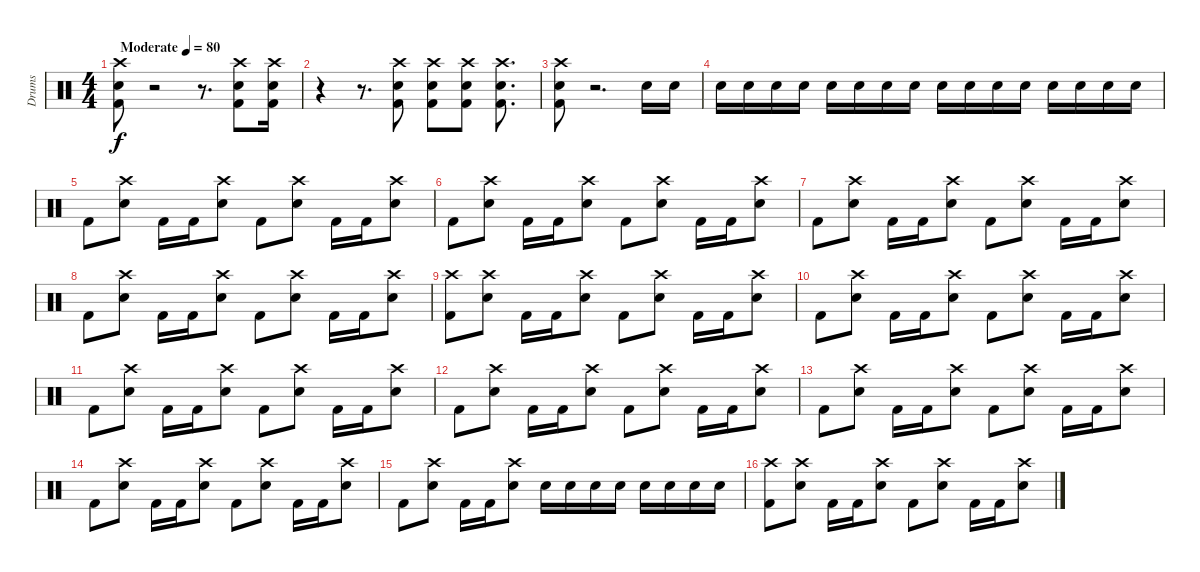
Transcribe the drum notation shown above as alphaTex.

\track ("Drums" "Drums") {instrument percussion}
\staff {score}
\articulation defaults
\ts (4 4)
\tempo (80 "Moderate")
\clef neutral
\ks c
("Kick (hit) 2" "Snare (hit) 2" "Crash high (hit)").8{dy f} r.2 r.8{d} ("Kick (hit) 2" "Snare (hit) 2" "Crash high (hit)").8 ("Kick (hit) 2" "Snare (hit) 2" "Crash high (hit)").16 |
r.4 r.8{d} ("Kick (hit) 2" "Snare (hit) 2" "Crash high (hit)").8 ("Kick (hit) 2" "Snare (hit) 2" "Crash high (hit)").8 ("Kick (hit) 2" "Snare (hit) 2" "Crash high (hit)").8 ("Kick (hit) 2" "Snare (hit) 2" "Crash high (hit)").8{d} |
("Kick (hit) 2" "Snare (hit) 2" "Crash high (hit)").8 r.2{d} "Snare (hit) 2".16 "Snare (hit) 2".16 |
"Snare (hit) 2".16 "Snare (hit) 2".16 "Snare (hit) 2".16 "Snare (hit) 2".16 "Snare (hit) 2".16 "Snare (hit) 2".16 "Snare (hit) 2".16 "Snare (hit) 2".16 "Snare (hit) 2".16 "Snare (hit) 2".16 "Snare (hit) 2".16 "Snare (hit) 2".16 "Snare (hit) 2".16 "Snare (hit) 2".16 "Snare (hit) 2".16 "Snare (hit) 2".16 |
"Kick (hit) 2".8 ("Snare (hit) 2" "Crash high (hit)").8 "Kick (hit) 2".16 "Kick (hit) 2".16 ("Snare (hit) 2" "Crash high (hit)").8 "Kick (hit) 2".8 ("Snare (hit) 2" "Crash high (hit)").8 "Kick (hit) 2".16 "Kick (hit) 2".16 ("Snare (hit) 2" "Crash high (hit)").8 |
"Kick (hit) 2".8 ("Snare (hit) 2" "Crash high (hit)").8 "Kick (hit) 2".16 "Kick (hit) 2".16 ("Snare (hit) 2" "Crash high (hit)").8 "Kick (hit) 2".8 ("Snare (hit) 2" "Crash high (hit)").8 "Kick (hit) 2".16 "Kick (hit) 2".16 ("Snare (hit) 2" "Crash high (hit)").8 |
"Kick (hit) 2".8 ("Snare (hit) 2" "Crash high (hit)").8 "Kick (hit) 2".16 "Kick (hit) 2".16 ("Snare (hit) 2" "Crash high (hit)").8 "Kick (hit) 2".8 ("Snare (hit) 2" "Crash high (hit)").8 "Kick (hit) 2".16 "Kick (hit) 2".16 ("Snare (hit) 2" "Crash high (hit)").8 |
"Kick (hit) 2".8 ("Snare (hit) 2" "Crash high (hit)").8 "Kick (hit) 2".16 "Kick (hit) 2".16 ("Snare (hit) 2" "Crash high (hit)").8 "Kick (hit) 2".8 ("Snare (hit) 2" "Crash high (hit)").8 "Kick (hit) 2".16 "Kick (hit) 2".16 ("Snare (hit) 2" "Crash high (hit)").8 |
("Kick (hit) 2" "Crash high (hit)").8 ("Snare (hit) 2" "Crash high (hit)").8 "Kick (hit) 2".16 "Kick (hit) 2".16 ("Snare (hit) 2" "Crash high (hit)").8 "Kick (hit) 2".8 ("Snare (hit) 2" "Crash high (hit)").8 "Kick (hit) 2".16 "Kick (hit) 2".16 ("Snare (hit) 2" "Crash high (hit)").8 |
"Kick (hit) 2".8 ("Snare (hit) 2" "Crash high (hit)").8 "Kick (hit) 2".16 "Kick (hit) 2".16 ("Snare (hit) 2" "Crash high (hit)").8 "Kick (hit) 2".8 ("Snare (hit) 2" "Crash high (hit)").8 "Kick (hit) 2".16 "Kick (hit) 2".16 ("Snare (hit) 2" "Crash high (hit)").8 |
"Kick (hit) 2".8 ("Snare (hit) 2" "Crash high (hit)").8 "Kick (hit) 2".16 "Kick (hit) 2".16 ("Snare (hit) 2" "Crash high (hit)").8 "Kick (hit) 2".8 ("Snare (hit) 2" "Crash high (hit)").8 "Kick (hit) 2".16 "Kick (hit) 2".16 ("Snare (hit) 2" "Crash high (hit)").8 |
"Kick (hit) 2".8 ("Snare (hit) 2" "Crash high (hit)").8 "Kick (hit) 2".16 "Kick (hit) 2".16 ("Snare (hit) 2" "Crash high (hit)").8 "Kick (hit) 2".8 ("Snare (hit) 2" "Crash high (hit)").8 "Kick (hit) 2".16 "Kick (hit) 2".16 ("Snare (hit) 2" "Crash high (hit)").8 |
"Kick (hit) 2".8 ("Snare (hit) 2" "Crash high (hit)").8 "Kick (hit) 2".16 "Kick (hit) 2".16 ("Snare (hit) 2" "Crash high (hit)").8 "Kick (hit) 2".8 ("Snare (hit) 2" "Crash high (hit)").8 "Kick (hit) 2".16 "Kick (hit) 2".16 ("Snare (hit) 2" "Crash high (hit)").8 |
"Kick (hit) 2".8 ("Snare (hit) 2" "Crash high (hit)").8 "Kick (hit) 2".16 "Kick (hit) 2".16 ("Snare (hit) 2" "Crash high (hit)").8 "Kick (hit) 2".8 ("Snare (hit) 2" "Crash high (hit)").8 "Kick (hit) 2".16 "Kick (hit) 2".16 ("Snare (hit) 2" "Crash high (hit)").8 |
"Kick (hit) 2".8 ("Snare (hit) 2" "Crash high (hit)").8 "Kick (hit) 2".16 "Kick (hit) 2".16 ("Snare (hit) 2" "Crash high (hit)").8 "Snare (hit) 2".16 "Snare (hit) 2".16 "Snare (hit) 2".16 "Snare (hit) 2".16 "Snare (hit) 2".16 "Snare (hit) 2".16 "Snare (hit) 2".16 "Snare (hit) 2".16 |
("Kick (hit) 2" "Crash high (hit)").8 ("Snare (hit) 2" "Crash high (hit)").8 "Kick (hit) 2".16 "Kick (hit) 2".16 ("Snare (hit) 2" "Crash high (hit)").8 "Kick (hit) 2".8 ("Snare (hit) 2" "Crash high (hit)").8 "Kick (hit) 2".16 "Kick (hit) 2".16 ("Snare (hit) 2" "Crash high (hit)").8
